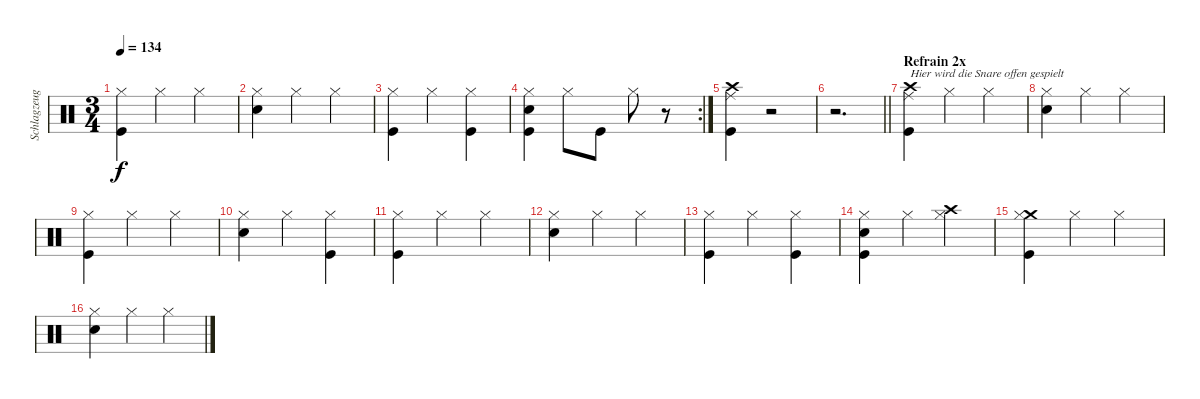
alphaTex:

\track ("Schlagzeug" "Schlagzeug") {instrument percussion}
\staff {score}
\articulation defaults
\ts (3 4)
\tempo 134
\clef neutral
\ks c
("Hi-Hat (closed)" "Kick (hit)").4{dy f} "Hi-Hat (closed)".4 "Hi-Hat (closed)".4 |
("Hi-Hat (closed)" "Snare (hit) 2").4 "Hi-Hat (closed)".4 "Hi-Hat (closed)".4 |
("Hi-Hat (closed)" "Kick (hit)").4 "Hi-Hat (closed)".4 ("Hi-Hat (closed)" "Kick (hit)").4 |
\rc 2
("Hi-Hat (closed)" "Kick (hit)" "Snare (hit) 2").4 "Hi-Hat (closed)".8 "Kick (hit)".8 "Hi-Hat (closed)".8 r.8 |
("Crash high (hit)" "Ride (middle)" "Kick (hit)").4 r.2 |
\barLineRight lightlight
r.2{d} |
\section ("" "Refrain 2x")
("Crash high (hit)" "Ride (middle)" "Kick (hit)").4{txt "Hier wird die Snare offen gespielt"} "Hi-Hat (closed)".4 "Hi-Hat (closed)".4 |
("Hi-Hat (closed)" "Snare (hit) 2").4 "Hi-Hat (closed)".4 "Hi-Hat (closed)".4 |
("Hi-Hat (closed)" "Kick (hit)").4 "Hi-Hat (closed)".4 "Hi-Hat (closed)".4 |
("Hi-Hat (closed)" "Snare (hit) 2").4 "Hi-Hat (closed)".4 ("Hi-Hat (closed)" "Kick (hit)").4 |
("Hi-Hat (closed)" "Kick (hit)").4 "Hi-Hat (closed)".4 "Hi-Hat (closed)".4 |
("Hi-Hat (closed)" "Snare (hit) 2").4 "Hi-Hat (closed)".4 "Hi-Hat (closed)".4 |
("Hi-Hat (closed)" "Kick (hit)").4 "Hi-Hat (closed)".4 ("Hi-Hat (closed)" "Kick (hit)").4 |
("Hi-Hat (closed)" "Kick (hit)" "Snare (hit) 2").4 "Hi-Hat (closed)".4 ("Crash high (hit)" "Hi-Hat (closed)").4 |
("Crash medium (hit)" "Hi-Hat (closed)" "Kick (hit)").4 "Hi-Hat (closed)".4 "Hi-Hat (closed)".4 |
("Hi-Hat (closed)" "Snare (hit) 2").4 "Hi-Hat (closed)".4 "Hi-Hat (closed)".4
